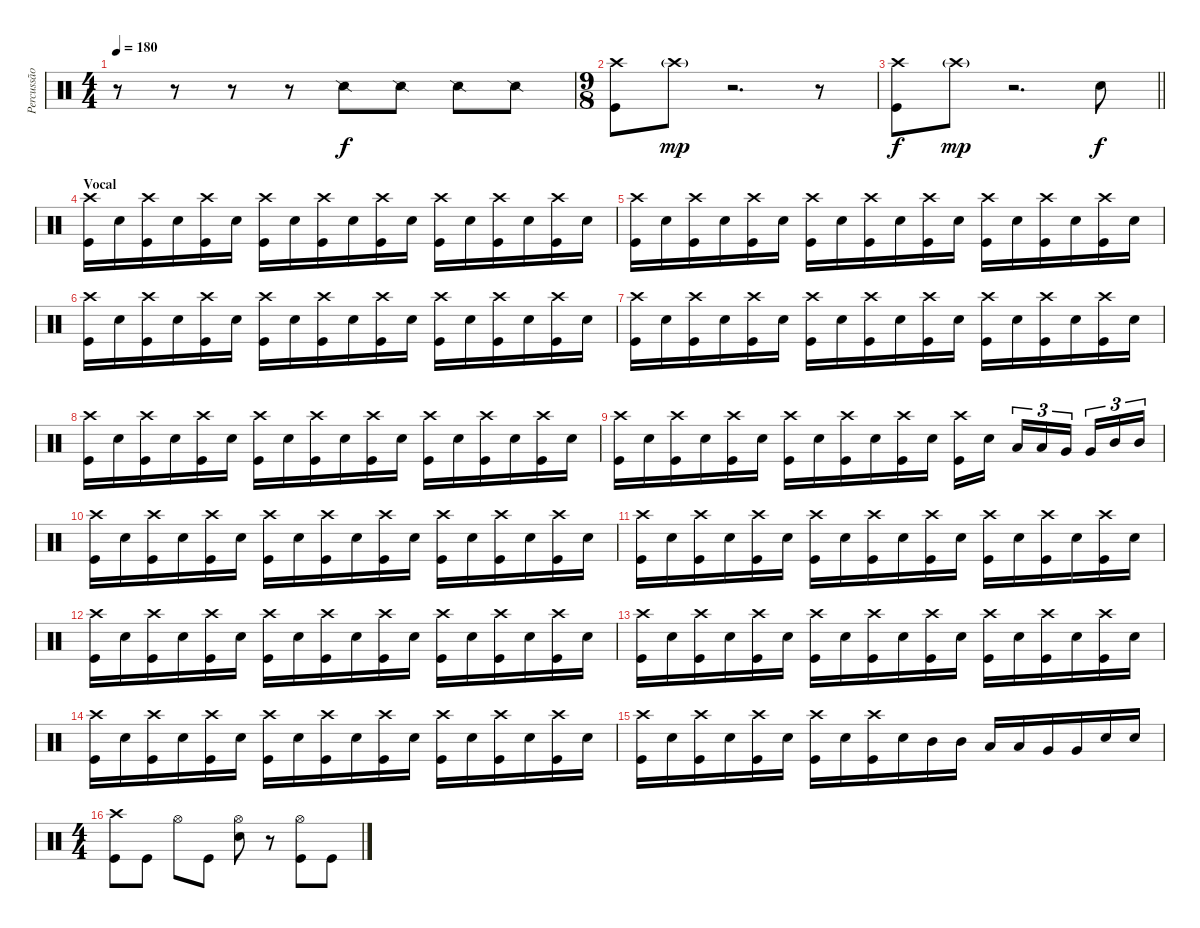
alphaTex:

\track ("Percussão" "Percussão") {mute instrument percussion}
\staff {score}
\articulation defaults
\ts (4 4)
\tempo 180
\clef neutral
\ks c
r.8{dy f} r.8 r.8 r.8 "Snare (side stick) 2".8 "Snare (side stick) 2".8 "Snare (side stick) 2".8 "Snare (side stick) 2".8 |
\ts (9 8)
("Crash high (hit)" "Kick (hit)").8 "Crash high (hit)"{g}.8{dy mp} r.2{d} r.8 |
\barLineRight lightlight
("Crash high (hit)" "Kick (hit)").8{dy f} "Crash high (hit)"{g}.8{dy mp} r.2{d} "Electric Snare (hit)".8{dy f} |
\section ("" "Vocal")
("Crash high (hit)" "Kick (hit)").16 "Electric Snare (hit)".16 ("Crash high (hit)" "Kick (hit)").16 "Electric Snare (hit)".16 ("Crash high (hit)" "Kick (hit)").16 "Electric Snare (hit)".16 ("Crash high (hit)" "Kick (hit)").16 "Electric Snare (hit)".16 ("Crash high (hit)" "Kick (hit)").16 "Electric Snare (hit)".16 ("Crash high (hit)" "Kick (hit)").16 "Electric Snare (hit)".16 ("Crash high (hit)" "Kick (hit)").16 "Electric Snare (hit)".16 ("Crash high (hit)" "Kick (hit)").16 "Electric Snare (hit)".16 ("Crash high (hit)" "Kick (hit)").16 "Electric Snare (hit)".16 |
("Crash high (hit)" "Kick (hit)").16 "Electric Snare (hit)".16 ("Crash high (hit)" "Kick (hit)").16 "Electric Snare (hit)".16 ("Crash high (hit)" "Kick (hit)").16 "Electric Snare (hit)".16 ("Crash high (hit)" "Kick (hit)").16 "Electric Snare (hit)".16 ("Crash high (hit)" "Kick (hit)").16 "Electric Snare (hit)".16 ("Crash high (hit)" "Kick (hit)").16 "Electric Snare (hit)".16 ("Crash high (hit)" "Kick (hit)").16 "Electric Snare (hit)".16 ("Crash high (hit)" "Kick (hit)").16 "Electric Snare (hit)".16 ("Crash high (hit)" "Kick (hit)").16 "Electric Snare (hit)".16 |
("Crash high (hit)" "Kick (hit)").16 "Electric Snare (hit)".16 ("Crash high (hit)" "Kick (hit)").16 "Electric Snare (hit)".16 ("Crash high (hit)" "Kick (hit)").16 "Electric Snare (hit)".16 ("Crash high (hit)" "Kick (hit)").16 "Electric Snare (hit)".16 ("Crash high (hit)" "Kick (hit)").16 "Electric Snare (hit)".16 ("Crash high (hit)" "Kick (hit)").16 "Electric Snare (hit)".16 ("Crash high (hit)" "Kick (hit)").16 "Electric Snare (hit)".16 ("Crash high (hit)" "Kick (hit)").16 "Electric Snare (hit)".16 ("Crash high (hit)" "Kick (hit)").16 "Electric Snare (hit)".16 |
("Crash high (hit)" "Kick (hit)").16 "Electric Snare (hit)".16 ("Crash high (hit)" "Kick (hit)").16 "Electric Snare (hit)".16 ("Crash high (hit)" "Kick (hit)").16 "Electric Snare (hit)".16 ("Crash high (hit)" "Kick (hit)").16 "Electric Snare (hit)".16 ("Crash high (hit)" "Kick (hit)").16 "Electric Snare (hit)".16 ("Crash high (hit)" "Kick (hit)").16 "Electric Snare (hit)".16 ("Crash high (hit)" "Kick (hit)").16 "Electric Snare (hit)".16 ("Crash high (hit)" "Kick (hit)").16 "Electric Snare (hit)".16 ("Crash high (hit)" "Kick (hit)").16 "Electric Snare (hit)".16 |
("Crash high (hit)" "Kick (hit)").16 "Electric Snare (hit)".16 ("Crash high (hit)" "Kick (hit)").16 "Electric Snare (hit)".16 ("Crash high (hit)" "Kick (hit)").16 "Electric Snare (hit)".16 ("Crash high (hit)" "Kick (hit)").16 "Electric Snare (hit)".16 ("Crash high (hit)" "Kick (hit)").16 "Electric Snare (hit)".16 ("Crash high (hit)" "Kick (hit)").16 "Electric Snare (hit)".16 ("Crash high (hit)" "Kick (hit)").16 "Electric Snare (hit)".16 ("Crash high (hit)" "Kick (hit)").16 "Electric Snare (hit)".16 ("Crash high (hit)" "Kick (hit)").16 "Electric Snare (hit)".16 |
("Crash high (hit)" "Kick (hit)").16 "Electric Snare (hit)".16 ("Crash high (hit)" "Kick (hit)").16 "Electric Snare (hit)".16 ("Crash high (hit)" "Kick (hit)").16 "Electric Snare (hit)".16 ("Crash high (hit)" "Kick (hit)").16 "Electric Snare (hit)".16 ("Crash high (hit)" "Kick (hit)").16 "Electric Snare (hit)".16 ("Crash high (hit)" "Kick (hit)").16 "Electric Snare (hit)".16 ("Crash high (hit)" "Kick (hit)").16 "Electric Snare (hit)".16{beam splitsecondary} "Low Tom (hit)".16{tu (3 2)} "Low Tom (hit)".16{tu (3 2)} "Very Low Tom (hit)".16{tu (3 2) beam splitsecondary} "Very Low Tom (hit)".16{tu (3 2)} "Mid Tom (hit)".16{tu (3 2)} "Mid Tom (hit)".16{tu (3 2)} |
("Crash high (hit)" "Kick (hit)").16 "Electric Snare (hit)".16 ("Crash high (hit)" "Kick (hit)").16 "Electric Snare (hit)".16 ("Crash high (hit)" "Kick (hit)").16 "Electric Snare (hit)".16 ("Crash high (hit)" "Kick (hit)").16 "Electric Snare (hit)".16 ("Crash high (hit)" "Kick (hit)").16 "Electric Snare (hit)".16 ("Crash high (hit)" "Kick (hit)").16 "Electric Snare (hit)".16 ("Crash high (hit)" "Kick (hit)").16 "Electric Snare (hit)".16 ("Crash high (hit)" "Kick (hit)").16 "Electric Snare (hit)".16 ("Crash high (hit)" "Kick (hit)").16 "Electric Snare (hit)".16 |
("Crash high (hit)" "Kick (hit)").16 "Electric Snare (hit)".16 ("Crash high (hit)" "Kick (hit)").16 "Electric Snare (hit)".16 ("Crash high (hit)" "Kick (hit)").16 "Electric Snare (hit)".16 ("Crash high (hit)" "Kick (hit)").16 "Electric Snare (hit)".16 ("Crash high (hit)" "Kick (hit)").16 "Electric Snare (hit)".16 ("Crash high (hit)" "Kick (hit)").16 "Electric Snare (hit)".16 ("Crash high (hit)" "Kick (hit)").16 "Electric Snare (hit)".16 ("Crash high (hit)" "Kick (hit)").16 "Electric Snare (hit)".16 ("Crash high (hit)" "Kick (hit)").16 "Electric Snare (hit)".16 |
("Crash high (hit)" "Kick (hit)").16 "Electric Snare (hit)".16 ("Crash high (hit)" "Kick (hit)").16 "Electric Snare (hit)".16 ("Crash high (hit)" "Kick (hit)").16 "Electric Snare (hit)".16 ("Crash high (hit)" "Kick (hit)").16 "Electric Snare (hit)".16 ("Crash high (hit)" "Kick (hit)").16 "Electric Snare (hit)".16 ("Crash high (hit)" "Kick (hit)").16 "Electric Snare (hit)".16 ("Crash high (hit)" "Kick (hit)").16 "Electric Snare (hit)".16 ("Crash high (hit)" "Kick (hit)").16 "Electric Snare (hit)".16 ("Crash high (hit)" "Kick (hit)").16 "Electric Snare (hit)".16 |
("Crash high (hit)" "Kick (hit)").16 "Electric Snare (hit)".16 ("Crash high (hit)" "Kick (hit)").16 "Electric Snare (hit)".16 ("Crash high (hit)" "Kick (hit)").16 "Electric Snare (hit)".16 ("Crash high (hit)" "Kick (hit)").16 "Electric Snare (hit)".16 ("Crash high (hit)" "Kick (hit)").16 "Electric Snare (hit)".16 ("Crash high (hit)" "Kick (hit)").16 "Electric Snare (hit)".16 ("Crash high (hit)" "Kick (hit)").16 "Electric Snare (hit)".16 ("Crash high (hit)" "Kick (hit)").16 "Electric Snare (hit)".16 ("Crash high (hit)" "Kick (hit)").16 "Electric Snare (hit)".16 |
("Crash high (hit)" "Kick (hit)").16 "Electric Snare (hit)".16 ("Crash high (hit)" "Kick (hit)").16 "Electric Snare (hit)".16 ("Crash high (hit)" "Kick (hit)").16 "Electric Snare (hit)".16 ("Crash high (hit)" "Kick (hit)").16 "Electric Snare (hit)".16 ("Crash high (hit)" "Kick (hit)").16 "Electric Snare (hit)".16 ("Crash high (hit)" "Kick (hit)").16 "Electric Snare (hit)".16 ("Crash high (hit)" "Kick (hit)").16 "Electric Snare (hit)".16 ("Crash high (hit)" "Kick (hit)").16 "Electric Snare (hit)".16 ("Crash high (hit)" "Kick (hit)").16 "Electric Snare (hit)".16 |
("Crash high (hit)" "Kick (hit)").16 "Electric Snare (hit)".16 ("Crash high (hit)" "Kick (hit)").16 "Electric Snare (hit)".16 ("Crash high (hit)" "Kick (hit)").16 "Electric Snare (hit)".16 ("Crash high (hit)" "Kick (hit)").16 "Electric Snare (hit)".16 ("Crash high (hit)" "Kick (hit)").16 "Electric Snare (hit)".16 "Mid Tom (hit)".16 "Mid Tom (hit)".16 "Low Tom (hit)".16 "Low Tom (hit)".16 "Very Low Tom (hit)".16 "Very Low Tom (hit)".16 "Electric Snare (hit)".16 "Electric Snare (hit)".16 |
\ts (4 4)
("Crash high (hit)" "Kick (hit)").8 "Kick (hit)".8 "Hi-Hat (open)".8 "Kick (hit)".8 ("Hi-Hat (open)" "Electric Snare (hit)").8 r.8 ("Hi-Hat (open)" "Kick (hit)").8 "Kick (hit)".8
